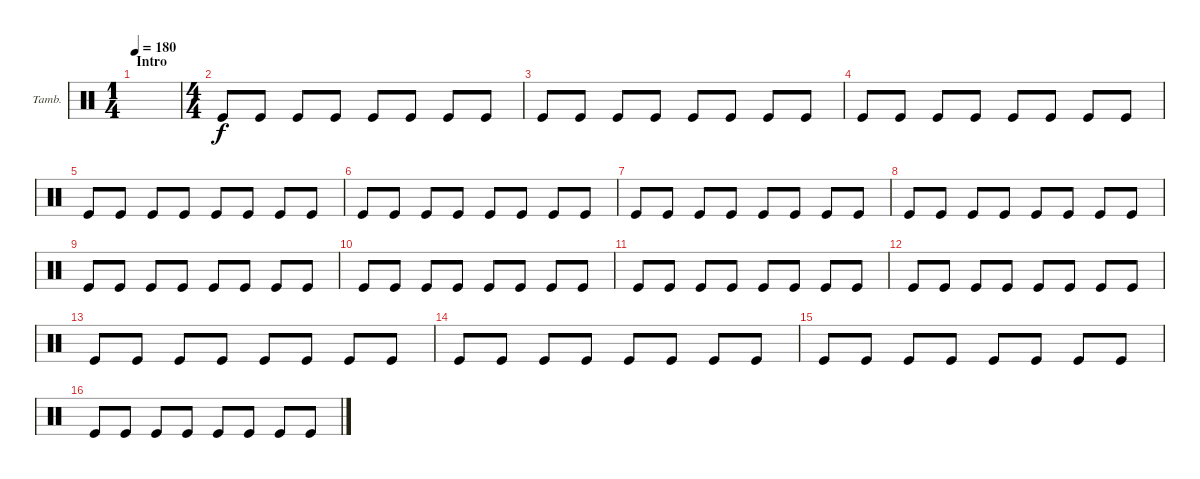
\defaultSystemsLayout 4
\bracketExtendMode groupsimilarinstruments
\firstSystemTrackNameOrientation horizontal
\otherSystemsTrackNameOrientation horizontal
\track ("Tambourine" "Tamb.") {instrument percussion}
\staff {score}
\articulation defaults
\ts (1 4)
\section ("" "Intro")
\tempo 180
\clef neutral
\scale
0.390805
\ks c
|
\ts (4 4)
\scale
0.390805 "Kick (hit)".8 "Kick (hit)".8 "Kick (hit)".8 "Kick (hit)".8 "Kick (hit)".8 "Kick (hit)".8 "Kick (hit)".8 "Kick (hit)".8 |
\scale
0.218391 "Kick (hit)".8 "Kick (hit)".8 "Kick (hit)".8 "Kick (hit)".8 "Kick (hit)".8 "Kick (hit)".8 "Kick (hit)".8 "Kick (hit)".8 |
\scale
0.333333 "Kick (hit)".8 "Kick (hit)".8 "Kick (hit)".8 "Kick (hit)".8 "Kick (hit)".8 "Kick (hit)".8 "Kick (hit)".8 "Kick (hit)".8 |
\scale
0.333333 "Kick (hit)".8 "Kick (hit)".8 "Kick (hit)".8 "Kick (hit)".8 "Kick (hit)".8 "Kick (hit)".8 "Kick (hit)".8 "Kick (hit)".8 |
\scale
0.333333 "Kick (hit)".8 "Kick (hit)".8 "Kick (hit)".8 "Kick (hit)".8 "Kick (hit)".8 "Kick (hit)".8 "Kick (hit)".8 "Kick (hit)".8 |
\scale
0.333333 "Kick (hit)".8 "Kick (hit)".8 "Kick (hit)".8 "Kick (hit)".8 "Kick (hit)".8 "Kick (hit)".8 "Kick (hit)".8 "Kick (hit)".8 |
\scale
0.333333 "Kick (hit)".8 "Kick (hit)".8 "Kick (hit)".8 "Kick (hit)".8 "Kick (hit)".8 "Kick (hit)".8 "Kick (hit)".8 "Kick (hit)".8 |
\scale
0.333333 "Kick (hit)".8 "Kick (hit)".8 "Kick (hit)".8 "Kick (hit)".8 "Kick (hit)".8 "Kick (hit)".8 "Kick (hit)".8 "Kick (hit)".8 |
\scale
0.333333 "Kick (hit)".8 "Kick (hit)".8 "Kick (hit)".8 "Kick (hit)".8 "Kick (hit)".8 "Kick (hit)".8 "Kick (hit)".8 "Kick (hit)".8 |
\scale
0.333333 "Kick (hit)".8 "Kick (hit)".8 "Kick (hit)".8 "Kick (hit)".8 "Kick (hit)".8 "Kick (hit)".8 "Kick (hit)".8 "Kick (hit)".8 |
\scale
0.333333 "Kick (hit)".8 "Kick (hit)".8 "Kick (hit)".8 "Kick (hit)".8 "Kick (hit)".8 "Kick (hit)".8 "Kick (hit)".8 "Kick (hit)".8 |
\scale
0.333333 "Kick (hit)".8 "Kick (hit)".8 "Kick (hit)".8 "Kick (hit)".8 "Kick (hit)".8 "Kick (hit)".8 "Kick (hit)".8 "Kick (hit)".8 |
\scale
0.333333 "Kick (hit)".8 "Kick (hit)".8 "Kick (hit)".8 "Kick (hit)".8 "Kick (hit)".8 "Kick (hit)".8 "Kick (hit)".8 "Kick (hit)".8 |
\scale
0.333333 "Kick (hit)".8 "Kick (hit)".8 "Kick (hit)".8 "Kick (hit)".8 "Kick (hit)".8 "Kick (hit)".8 "Kick (hit)".8 "Kick (hit)".8 |
\scale
0.333333 "Kick (hit)".8 "Kick (hit)".8 "Kick (hit)".8 "Kick (hit)".8 "Kick (hit)".8 "Kick (hit)".8 "Kick (hit)".8 "Kick (hit)".8
